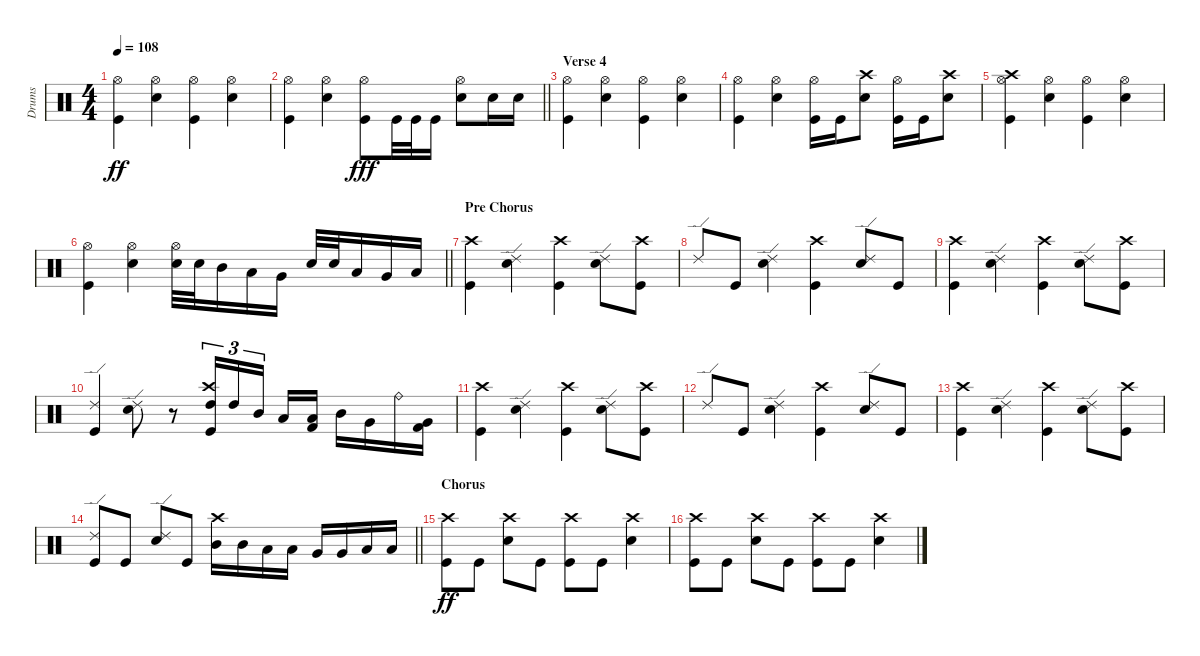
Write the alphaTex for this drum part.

\track ("Drums" "Drums") {instrument percussion}
\staff {score}
\articulation defaults
\ts (4 4)
\tempo 108
\clef neutral
\ks c
("Hi-Hat (open)" "Kick (hit)").4{dy ff} ("Hi-Hat (open)" "Snare (hit) 2").4 ("Hi-Hat (open)" "Kick (hit)").4 ("Hi-Hat (open)" "Snare (hit) 2").4 |
\barLineRight lightlight
("Hi-Hat (open)" "Kick (hit)").4 ("Hi-Hat (open)" "Snare (hit) 2").4 ("Hi-Hat (open)" "Kick (hit)").8{dy fff} "Kick (hit)".32 "Kick (hit)".32 "Kick (hit)".16 ("Hi-Hat (open)" "Snare (hit) 2").8 "Snare (hit) 2".16 "Snare (hit) 2".16 |
\section ("" "Verse 4")
("Hi-Hat (open)" "Kick (hit)").4 ("Hi-Hat (open)" "Snare (hit) 2").4 ("Hi-Hat (open)" "Kick (hit)").4 ("Hi-Hat (open)" "Snare (hit) 2").4 |
("Hi-Hat (open)" "Kick (hit)").4 ("Hi-Hat (open)" "Snare (hit) 2").4 ("Hi-Hat (open)" "Kick (hit)").16 "Kick (hit)".16 ("Crash high (hit)" "Snare (hit) 2").8 ("Hi-Hat (open)" "Kick (hit)").16 "Kick (hit)".16 ("Crash high (hit)" "Snare (hit) 2").8 |
("Crash high (hit)" "Hi-Hat (open)" "Kick (hit)").4 ("Hi-Hat (open)" "Snare (hit) 2").4 ("Hi-Hat (open)" "Kick (hit)").4 ("Hi-Hat (open)" "Snare (hit) 2").4 |
\barLineRight lightlight
("Hi-Hat (open)" "Kick (hit)").4 ("Hi-Hat (open)" "Snare (hit) 2").4 ("Hi-Hat (open)" "Snare (hit) 2").32 "Snare (hit) 2".32 "Mid Tom (hit)".16 "Low Tom (hit)".16 "Very Low Tom (hit)".16 "Snare (hit) 2".32 "Snare (hit) 2".32 "Low Tom (hit)".16 "Very Low Tom (hit)".16 "Low Floor Tom (hit)".16 |
\section ("" "Pre Chorus")
("Crash high (hit)" "Kick (hit)").4 ("Ride (edge) 2" "Snare (hit) 2").4 ("Crash high (hit)" "Kick (hit)").4 ("Ride (edge) 2" "Snare (hit) 2").8 ("Crash high (hit)" "Kick (hit)").8 |
"Ride (edge) 2".8 "Kick (hit)".8 ("Ride (edge) 2" "Snare (hit) 2").4 ("Crash high (hit)" "Kick (hit)").4 ("Ride (edge) 2" "Snare (hit) 2").8 "Kick (hit)".8 |
("Crash high (hit)" "Kick (hit)").4 ("Ride (edge) 2" "Snare (hit) 2").4 ("Crash high (hit)" "Kick (hit)").4 ("Ride (edge) 2" "Snare (hit) 2").8 ("Crash high (hit)" "Kick (hit)").8 |
("Ride (edge) 2" "Kick (hit)").4 ("Ride (edge) 2" "Snare (hit) 2").8 r.8 ("Crash high (hit)" "High Tom (hit)" "Kick (hit)").16{tu (3 2)} "High Tom (hit)".16{tu (3 2)} "Mid Tom (hit)".16{tu (3 2) beam splitsecondary} "Low Tom (hit)".16 ("Low Tom (hit)" "Kick (hit) 2").16 "Mid Tom (hit)".16 "Very Low Tom (hit)".16 "Ride (bell)".16 ("Very Low Tom (hit)" "Kick (hit) 2").16 |
("Crash high (hit)" "Kick (hit)").4 ("Ride (edge) 2" "Snare (hit) 2").4 ("Crash high (hit)" "Kick (hit)").4 ("Ride (edge) 2" "Snare (hit) 2").8 ("Crash high (hit)" "Kick (hit)").8 |
"Ride (edge) 2".8 "Kick (hit)".8 ("Ride (edge) 2" "Snare (hit) 2").4 ("Crash high (hit)" "Kick (hit)").4 ("Ride (edge) 2" "Snare (hit) 2").8 "Kick (hit)".8 |
("Crash high (hit)" "Kick (hit)").4 ("Ride (edge) 2" "Snare (hit) 2").4 ("Crash high (hit)" "Kick (hit)").4 ("Ride (edge) 2" "Snare (hit) 2").8 ("Crash high (hit)" "Kick (hit)").8 |
\barLineRight lightlight
("Ride (edge) 2" "Kick (hit)").8 "Kick (hit)".8 ("Ride (edge) 2" "Snare (hit) 2").8 "Kick (hit)".8 ("Crash high (hit)" "Mid Tom (hit)").16 "Mid Tom (hit)".16 "Low Tom (hit)".16 "Low Tom (hit)".16 "Very Low Tom (hit)".16 "Very Low Tom (hit)".16 "Low Floor Tom (hit)".16 "Low Floor Tom (hit)".16 |
\section ("" "Chorus")
("Crash high (hit)" "Kick (hit)").8{dy ff} "Kick (hit)".8 ("Crash high (hit)" "Snare (hit) 2").8 "Kick (hit)".8 ("Crash high (hit)" "Kick (hit)").8 "Kick (hit)".8 ("Crash high (hit)" "Snare (hit) 2").4 |
("Crash high (hit)" "Kick (hit)").8 "Kick (hit)".8 ("Crash high (hit)" "Snare (hit) 2").8 "Kick (hit)".8 ("Crash high (hit)" "Kick (hit)").8 "Kick (hit)".8 ("Crash high (hit)" "Snare (hit) 2").4
